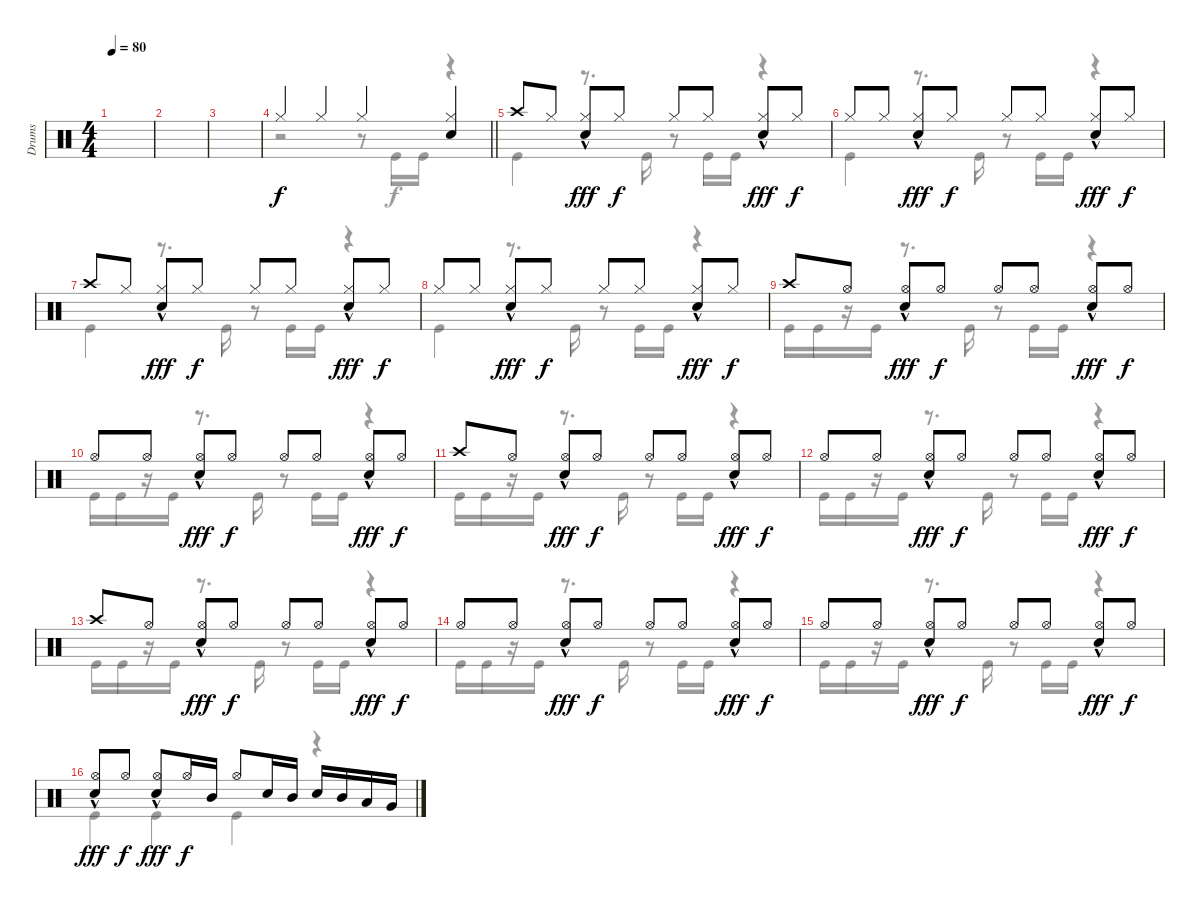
\track ("Drums" "Drums") {instrument percussion}
\staff {score}
\articulation defaults
\voice
\ts (4 4)
\tempo 80
\clef neutral
\ks c
|
|
|
\barLineRight lightlight "Hi-Hat (closed)".4 "Hi-Hat (closed)".4 "Hi-Hat (closed)".4
("Hi-Hat (closed)" "Snare (hit) 2").4 |
"Crash high (hit)".8 "Hi-Hat (closed)".8 ("Hi-Hat (closed)" "Snare (hit) 2"{hac}).8{dy fff} "Hi-Hat (closed)".8{dy f} "Hi-Hat (closed)".8 "Hi-Hat (closed)".8 ("Hi-Hat (closed)" "Snare (hit) 2"{hac}).8{dy fff} "Hi-Hat (closed)".8{dy f} |
"Hi-Hat (closed)".8 "Hi-Hat (closed)".8 ("Hi-Hat (closed)" "Snare (hit) 2"{hac}).8{dy fff} "Hi-Hat (closed)".8{dy f} "Hi-Hat (closed)".8 "Hi-Hat (closed)".8 ("Hi-Hat (closed)" "Snare (hit) 2"{hac}).8{dy fff} "Hi-Hat (closed)".8{dy f} |
"Crash high (hit)".8 "Hi-Hat (closed)".8 ("Hi-Hat (closed)" "Snare (hit) 2"{hac}).8{dy fff} "Hi-Hat (closed)".8{dy f} "Hi-Hat (closed)".8 "Hi-Hat (closed)".8 ("Hi-Hat (closed)" "Snare (hit) 2"{hac}).8{dy fff} "Hi-Hat (closed)".8{dy f} |
"Hi-Hat (closed)".8 "Hi-Hat (closed)".8 ("Hi-Hat (closed)" "Snare (hit) 2"{hac}).8{dy fff} "Hi-Hat (closed)".8{dy f} "Hi-Hat (closed)".8 "Hi-Hat (closed)".8 ("Hi-Hat (closed)" "Snare (hit) 2"{hac}).8{dy fff} "Hi-Hat (closed)".8{dy f} |
"Crash high (hit)".8 "Hi-Hat (open)".8 ("Hi-Hat (open)" "Snare (hit) 2"{hac}).8{dy fff} "Hi-Hat (open)".8{dy f} "Hi-Hat (open)".8 "Hi-Hat (open)".8 ("Hi-Hat (open)" "Snare (hit) 2"{hac}).8{dy fff} "Hi-Hat (open)".8{dy f} |
"Hi-Hat (open)".8 "Hi-Hat (open)".8 ("Hi-Hat (open)" "Snare (hit) 2"{hac}).8{dy fff} "Hi-Hat (open)".8{dy f} "Hi-Hat (open)".8 "Hi-Hat (open)".8 ("Hi-Hat (open)" "Snare (hit) 2"{hac}).8{dy fff} "Hi-Hat (open)".8{dy f} |
"Crash high (hit)".8 "Hi-Hat (open)".8 ("Hi-Hat (open)" "Snare (hit) 2"{hac}).8{dy fff} "Hi-Hat (open)".8{dy f} "Hi-Hat (open)".8 "Hi-Hat (open)".8 ("Hi-Hat (open)" "Snare (hit) 2"{hac}).8{dy fff} "Hi-Hat (open)".8{dy f} |
"Hi-Hat (open)".8 "Hi-Hat (open)".8 ("Hi-Hat (open)" "Snare (hit) 2"{hac}).8{dy fff} "Hi-Hat (open)".8{dy f} "Hi-Hat (open)".8 "Hi-Hat (open)".8 ("Hi-Hat (open)" "Snare (hit) 2"{hac}).8{dy fff} "Hi-Hat (open)".8{dy f} |
"Crash high (hit)".8 "Hi-Hat (open)".8 ("Hi-Hat (open)" "Snare (hit) 2"{hac}).8{dy fff} "Hi-Hat (open)".8{dy f} "Hi-Hat (open)".8 "Hi-Hat (open)".8 ("Hi-Hat (open)" "Snare (hit) 2"{hac}).8{dy fff} "Hi-Hat (open)".8{dy f} |
"Hi-Hat (open)".8 "Hi-Hat (open)".8 ("Hi-Hat (open)" "Snare (hit) 2"{hac}).8{dy fff} "Hi-Hat (open)".8{dy f} "Hi-Hat (open)".8 "Hi-Hat (open)".8 ("Hi-Hat (open)" "Snare (hit) 2"{hac}).8{dy fff} "Hi-Hat (open)".8{dy f} |
"Hi-Hat (open)".8 "Hi-Hat (open)".8 ("Hi-Hat (open)" "Snare (hit) 2"{hac}).8{dy fff} "Hi-Hat (open)".8{dy f} "Hi-Hat (open)".8 "Hi-Hat (open)".8 ("Hi-Hat (open)" "Snare (hit) 2"{hac}).8{dy fff} "Hi-Hat (open)".8{dy f} |
("Hi-Hat (open)" "Snare (hit) 2"{hac}).8{dy fff} "Hi-Hat (open)".8{dy f} ("Hi-Hat (open)" "Snare (hit) 2"{hac}).8{dy fff} "Hi-Hat (open)".16{dy f} "Mid Tom (hit)".16 "Hi-Hat (open)".8 "Snare (hit) 2".16 "Mid Tom (hit)".16 "Snare (hit) 2".16 "Mid Tom (hit)".16 "Low Tom (hit)".16 "Very Low Tom (hit)".16
\voice
\clef neutral
\ottava regular
\simile none
\ks c
|
|
|
\barLineRight lightlight
r.2 r.8 "Kick (hit)".16 "Kick (hit)".16 r.4 |
"Kick (hit)".4 r.8{d} "Kick (hit)".16 r.8 "Kick (hit)".16 "Kick (hit)".16 r.4 |
"Kick (hit)".4 r.8{d} "Kick (hit)".16 r.8 "Kick (hit)".16 "Kick (hit)".16 r.4 |
"Kick (hit)".4 r.8{d} "Kick (hit)".16 r.8 "Kick (hit)".16 "Kick (hit)".16 r.4 |
"Kick (hit)".4 r.8{d} "Kick (hit)".16 r.8 "Kick (hit)".16 "Kick (hit)".16 r.4 |
"Kick (hit)".16 "Kick (hit)".16 r.16 "Kick (hit)".16 r.8{d} "Kick (hit)".16 r.8 "Kick (hit)".16 "Kick (hit)".16 r.4 |
"Kick (hit)".16 "Kick (hit)".16 r.16 "Kick (hit)".16 r.8{d} "Kick (hit)".16 r.8 "Kick (hit)".16 "Kick (hit)".16 r.4 |
"Kick (hit)".16 "Kick (hit)".16 r.16 "Kick (hit)".16 r.8{d} "Kick (hit)".16 r.8 "Kick (hit)".16 "Kick (hit)".16 r.4 |
"Kick (hit)".16 "Kick (hit)".16 r.16 "Kick (hit)".16 r.8{d} "Kick (hit)".16 r.8 "Kick (hit)".16 "Kick (hit)".16 r.4 |
"Kick (hit)".16 "Kick (hit)".16 r.16 "Kick (hit)".16 r.8{d} "Kick (hit)".16 r.8 "Kick (hit)".16 "Kick (hit)".16 r.4 |
"Kick (hit)".16 "Kick (hit)".16 r.16 "Kick (hit)".16 r.8{d} "Kick (hit)".16 r.8 "Kick (hit)".16 "Kick (hit)".16 r.4 |
"Kick (hit)".16 "Kick (hit)".16 r.16 "Kick (hit)".16 r.8{d} "Kick (hit)".16 r.8 "Kick (hit)".16 "Kick (hit)".16 r.4 |
"Kick (hit)".4 "Kick (hit)".4 "Kick (hit)".4 r.4
